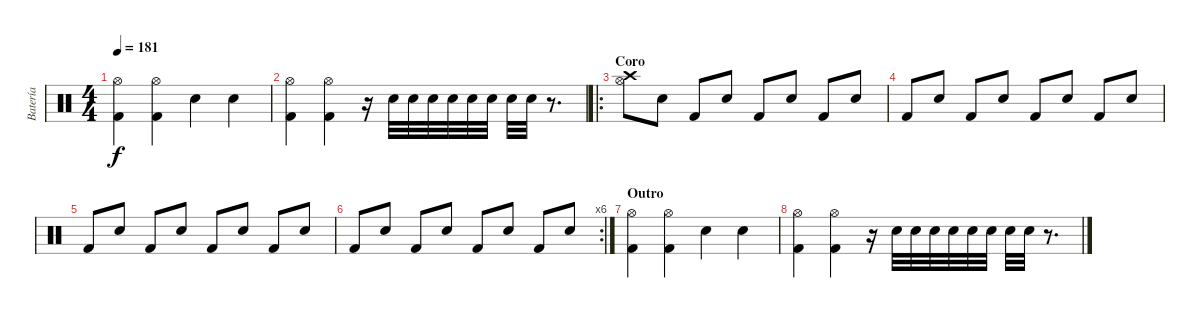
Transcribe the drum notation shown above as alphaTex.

\track ("Batería" "Batería") {instrument percussion}
\staff {score}
\articulation defaults
\ts (4 4)
\tempo 181
\clef neutral
\ks c
("Hi-Hat (open)" "Kick (hit) 2").4{dy f} ("Hi-Hat (open)" "Kick (hit) 2").4 "Snare (hit) 2".4 "Snare (hit) 2".4 |
("Hi-Hat (open)" "Kick (hit) 2").4 ("Hi-Hat (open)" "Kick (hit) 2").4 r.16 "Electric Snare (hit)".32 "Electric Snare (hit)".32 "Electric Snare (hit)".32 "Electric Snare (hit)".32 "Electric Snare (hit)".32 "Electric Snare (hit)".32 "Electric Snare (hit)".32 "Electric Snare (hit)".32 r.8{d} |
\ro
\section ("" "Coro")
("Crash high (hit)" "Hi-Hat (open)").8 "Electric Snare (hit)".8 "Kick (hit) 2".8 "Electric Snare (hit)".8 "Kick (hit) 2".8 "Electric Snare (hit)".8 "Kick (hit) 2".8 "Electric Snare (hit)".8 |
"Kick (hit) 2".8 "Electric Snare (hit)".8 "Kick (hit) 2".8 "Electric Snare (hit)".8 "Kick (hit) 2".8 "Electric Snare (hit)".8 "Kick (hit) 2".8 "Electric Snare (hit)".8 |
"Kick (hit) 2".8 "Electric Snare (hit)".8 "Kick (hit) 2".8 "Electric Snare (hit)".8 "Kick (hit) 2".8 "Electric Snare (hit)".8 "Kick (hit) 2".8 "Electric Snare (hit)".8 |
\rc 6 "Kick (hit) 2".8 "Electric Snare (hit)".8 "Kick (hit) 2".8 "Electric Snare (hit)".8 "Kick (hit) 2".8 "Electric Snare (hit)".8 "Kick (hit) 2".8 "Electric Snare (hit)".8
|
\section ("" "Outro")
("Hi-Hat (open)" "Kick (hit) 2").4 ("Hi-Hat (open)" "Kick (hit) 2").4 "Snare (hit) 2".4 "Snare (hit) 2".4 |
("Hi-Hat (open)" "Kick (hit) 2").4 ("Hi-Hat (open)" "Kick (hit) 2").4 r.16 "Electric Snare (hit)".32 "Electric Snare (hit)".32 "Electric Snare (hit)".32 "Electric Snare (hit)".32 "Electric Snare (hit)".32 "Electric Snare (hit)".32 "Electric Snare (hit)".32 "Electric Snare (hit)".32 r.8{d}
